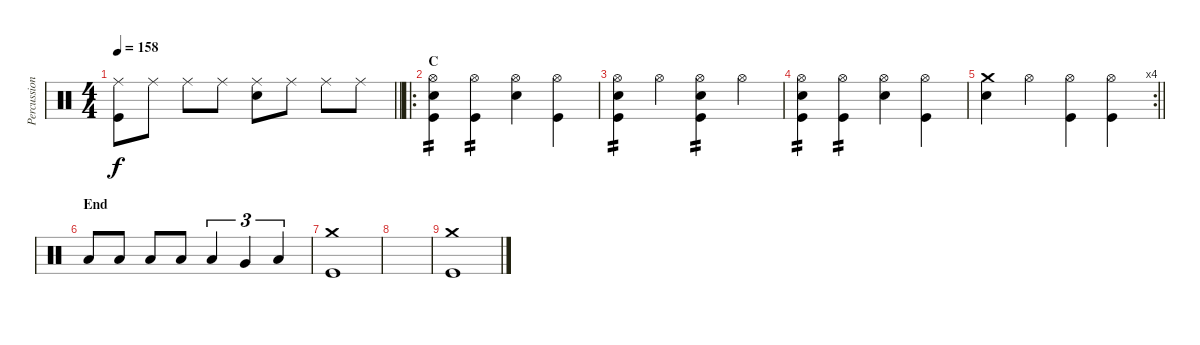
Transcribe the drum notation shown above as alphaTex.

\track ("Percussion" "Percussion") {instrument percussion}
\staff {score}
\articulation defaults
\ts (4 4)
\tempo 158
\clef neutral
\barLineRight lightlight
\ks c
("Ride (middle)" "Kick (hit)").8{dy f} "Ride (middle)".8 "Ride (middle)".8 "Ride (middle)".8 ("Ride (middle)" "Snare (hit) 2").8 "Ride (middle)".8 "Ride (middle)".8 "Ride (middle)".8 |
\ro
\section ("" "C")
("Hi-Hat (open)" "Snare (hit) 2" "Kick (hit)").4{tp 2} ("Hi-Hat (open)" "Kick (hit)").4{tp 2} ("Hi-Hat (open)" "Snare (hit) 2").4 ("Hi-Hat (open)" "Kick (hit)").4 |
("Hi-Hat (open)" "Snare (hit) 2" "Kick (hit)").4{tp 2} "Hi-Hat (open)".4 ("Hi-Hat (open)" "Snare (hit) 2" "Kick (hit)").4{tp 2} "Hi-Hat (open)".4 |
("Hi-Hat (open)" "Snare (hit) 2" "Kick (hit)").4{tp 2} ("Hi-Hat (open)" "Kick (hit)").4{tp 2} ("Hi-Hat (open)" "Snare (hit) 2").4 ("Hi-Hat (open)" "Kick (hit)").4 |
\rc 4
\barLineRight lightlight
("Crash medium (hit)" "Snare (hit) 2").4 "Hi-Hat (open)".4 ("Hi-Hat (open)" "Kick (hit)").4 ("Hi-Hat (open)" "Kick (hit)").4 |
\section ("" "End")
"Low Floor Tom (hit)".8 "Low Floor Tom (hit)".8 "Low Floor Tom (hit)".8 "Low Floor Tom (hit)".8 "Low Tom (hit)".4{tu (3 2)} "Very Low Tom (hit)".4{tu (3 2)} "Low Floor Tom (hit)".4{tu (3 2)} |
("Kick (hit)" "Crash medium (hit)").1 |
|
("Kick (hit)" "Crash medium (hit)").1
